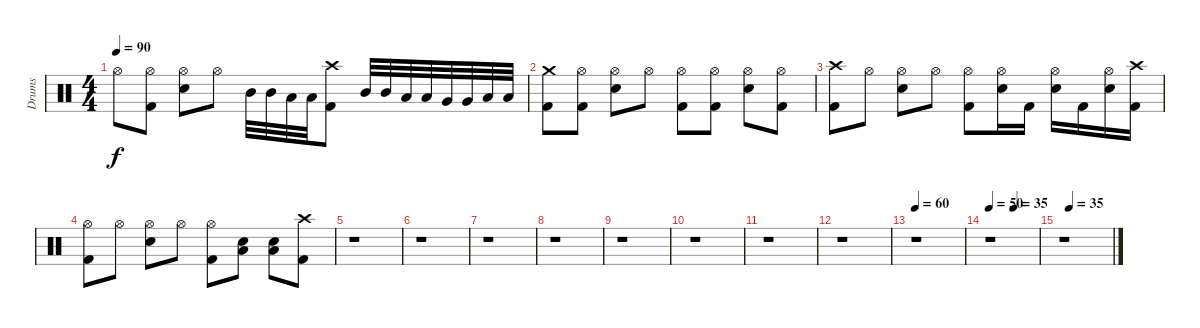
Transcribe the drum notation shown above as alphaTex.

\track ("Drums" "Drums") {instrument percussion}
\staff {score}
\articulation defaults
\ts (4 4)
\tempo 90
\clef neutral
\ks c "Hi-Hat (open)".8{dy f}
("Hi-Hat (open)" "Kick (hit) 2").8 ("Hi-Hat (open)" "Electric Snare (hit)").8 "Hi-Hat (open)".8 "Mid Tom (hit)".32 "Mid Tom (hit)".32 "Low Tom (hit)".32 "Low Tom (hit)".32 ("Crash high (hit)" "Kick (hit) 2").8 "Mid Tom (hit)".32 "Mid Tom (hit)".32 "Low Tom (hit)".32 "Low Tom (hit)".32 "Very Low Tom (hit)".32 "Very Low Tom (hit)".32 "Low Floor Tom (hit)".32 "Low Floor Tom (hit)".32 |
("Crash medium (hit)" "Kick (hit) 2").8 ("Hi-Hat (open)" "Kick (hit) 2").8 ("Hi-Hat (open)" "Electric Snare (hit)").8 "Hi-Hat (open)".8 ("Hi-Hat (open)" "Kick (hit) 2").8 ("Hi-Hat (open)" "Kick (hit) 2").8 ("Hi-Hat (open)" "Electric Snare (hit)").8 ("Hi-Hat (open)" "Kick (hit) 2").8 |
("Crash high (hit)" "Kick (hit) 2").8 "Hi-Hat (open)".8 ("Hi-Hat (open)" "Electric Snare (hit)").8 "Hi-Hat (open)".8 ("Hi-Hat (open)" "Kick (hit) 2").8 ("Hi-Hat (open)" "Electric Snare (hit)").16 "Kick (hit) 2".16 ("Hi-Hat (open)" "Electric Snare (hit)").16 "Kick (hit) 2".16 ("Hi-Hat (open)" "Electric Snare (hit)").16 ("Crash high (hit)" "Kick (hit) 2").16 |
("Hi-Hat (open)" "Kick (hit) 2").8 "Hi-Hat (open)".8 ("Hi-Hat (open)" "Electric Snare (hit)").8 "Hi-Hat (open)".8 ("Hi-Hat (open)" "Kick (hit) 2").8 ("Low Floor Tom (hit)" "Electric Snare (hit)").8 ("Low Floor Tom (hit)" "Electric Snare (hit)").8 ("Crash high (hit)" "Kick (hit) 2").8 |
r.1 |
r.1 |
r.1 |
r.1 |
r.1 |
r.1 |
r.1 |
r.1 |
\tempo 60
r.1 |
\tempo 50
\tempo (35 0.5)
r.1 |
\tempo (35 0.125)
r.1
